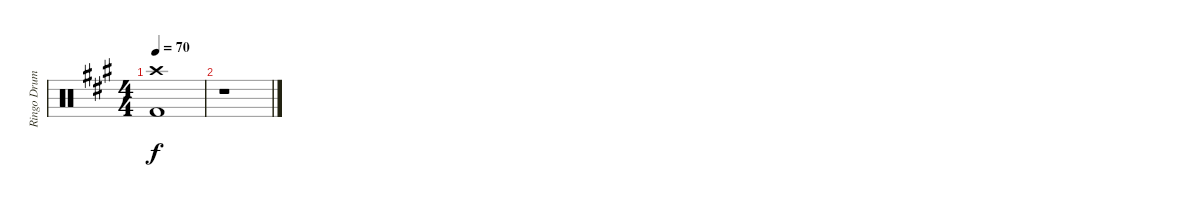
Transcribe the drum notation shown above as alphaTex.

\track ("Ringo Drums" "Ringo Drum") {instrument percussion}
\staff {score}
\articulation defaults
\ts (4 4)
\tempo 70
\clef neutral
\ks a
("Kick (hit) 2" "Crash high (hit)").1{dy f} |
r.1
